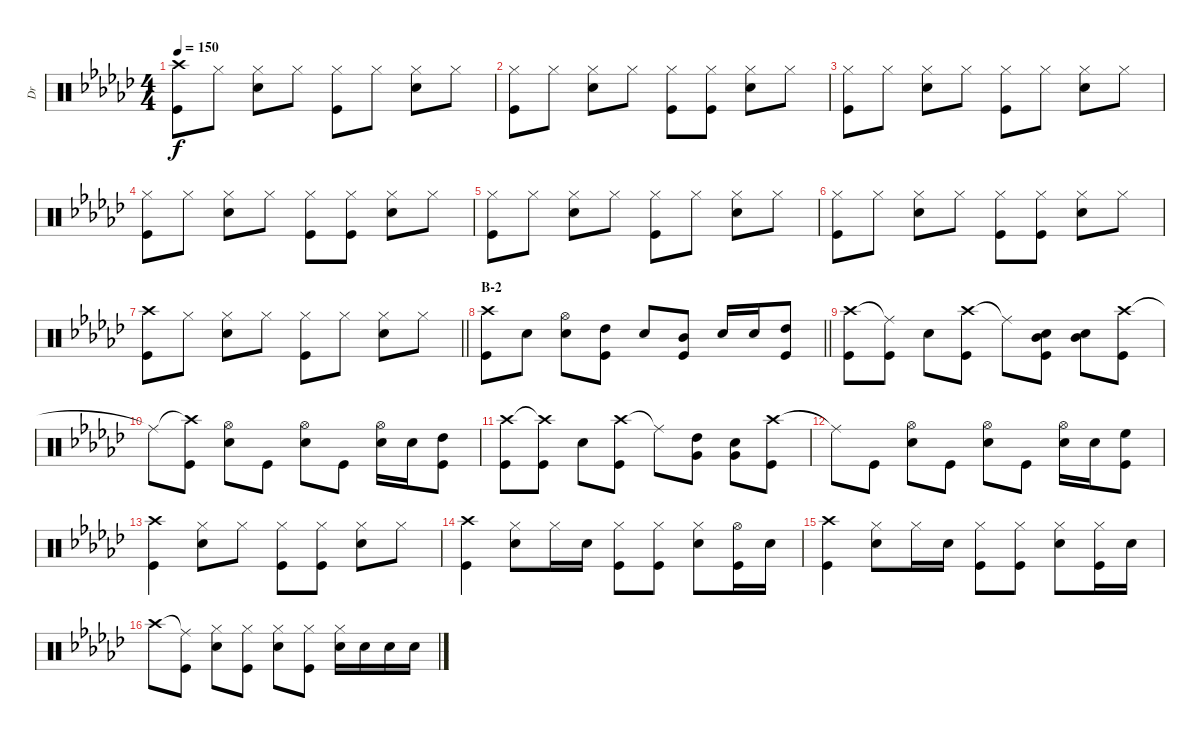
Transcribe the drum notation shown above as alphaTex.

\track ("Dr" "Dr") {instrument percussion}
\staff {score}
\articulation defaults
\ts (4 4)
\tempo 150
\clef neutral
\ks gb
("Crash high (hit)" "Kick (hit)").8{dy f} "Hi-Hat (closed)".8 ("Hi-Hat (closed)" "Electric Snare (hit)").8 "Hi-Hat (closed)".8 ("Hi-Hat (closed)" "Kick (hit)").8 "Hi-Hat (closed)".8 ("Hi-Hat (closed)" "Electric Snare (hit)").8 "Hi-Hat (closed)".8 |
("Hi-Hat (closed)" "Kick (hit)").8 "Hi-Hat (closed)".8 ("Hi-Hat (closed)" "Electric Snare (hit)").8 "Hi-Hat (closed)".8 ("Hi-Hat (closed)" "Kick (hit)").8 ("Hi-Hat (closed)" "Kick (hit)").8 ("Hi-Hat (closed)" "Electric Snare (hit)").8 "Hi-Hat (closed)".8 |
("Hi-Hat (closed)" "Kick (hit)").8 "Hi-Hat (closed)".8 ("Hi-Hat (closed)" "Electric Snare (hit)").8 "Hi-Hat (closed)".8 ("Hi-Hat (closed)" "Kick (hit)").8 "Hi-Hat (closed)".8 ("Hi-Hat (closed)" "Electric Snare (hit)").8 "Hi-Hat (closed)".8 |
("Hi-Hat (closed)" "Kick (hit)").8 "Hi-Hat (closed)".8 ("Hi-Hat (closed)" "Electric Snare (hit)").8 "Hi-Hat (closed)".8 ("Hi-Hat (closed)" "Kick (hit)").8 ("Hi-Hat (closed)" "Kick (hit)").8 ("Hi-Hat (closed)" "Electric Snare (hit)").8 "Hi-Hat (closed)".8 |
("Hi-Hat (closed)" "Kick (hit)").8 "Hi-Hat (closed)".8 ("Hi-Hat (closed)" "Electric Snare (hit)").8 "Hi-Hat (closed)".8 ("Hi-Hat (closed)" "Kick (hit)").8 "Hi-Hat (closed)".8 ("Hi-Hat (closed)" "Electric Snare (hit)").8 "Hi-Hat (closed)".8 |
("Hi-Hat (closed)" "Kick (hit)").8 "Hi-Hat (closed)".8 ("Hi-Hat (closed)" "Electric Snare (hit)").8 "Hi-Hat (closed)".8 ("Hi-Hat (closed)" "Kick (hit)").8 ("Hi-Hat (closed)" "Kick (hit)").8 ("Hi-Hat (closed)" "Electric Snare (hit)").8 "Hi-Hat (closed)".8 |
\barLineRight lightlight
("Crash high (hit)" "Kick (hit)").8 "Hi-Hat (closed)".8 ("Hi-Hat (closed)" "Electric Snare (hit)").8 "Hi-Hat (closed)".8 ("Hi-Hat (closed)" "Kick (hit)").8 "Hi-Hat (closed)".8 ("Hi-Hat (closed)" "Electric Snare (hit)").8 "Hi-Hat (closed)".8 |
\section ("" "B-2")
\barLineRight lightlight
("Crash high (hit)" "Kick (hit)").8 "Electric Snare (hit)".8 ("Hi-Hat (open)" "Electric Snare (hit)").8 ("High Tom (hit)" "Kick (hit)").8 "Electric Snare (hit)".8 ("Mid Tom (hit)" "Kick (hit)").8 "Electric Snare (hit)".16 "Electric Snare (hit)".16 ("High Tom (hit)" "Kick (hit)").8 |
("Crash high (hit)" "Kick (hit)").8 ("Ride (middle)"{t} "Kick (hit)").8 "Electric Snare (hit)".8 ("Crash high (hit)" "Kick (hit)").8 "Ride (middle)"{t}.8 ("Mid Tom (hit)" "Electric Snare (hit)" "Kick (hit)").8 ("Mid Tom (hit)" "Electric Snare (hit)").8 ("Crash high (hit)" "Kick (hit)").8 |
"Ride (middle)"{t}.8 ("Crash high (hit)"{t} "Kick (hit)").8 ("Hi-Hat (open)" "Electric Snare (hit)").8 "Kick (hit)".8 ("Hi-Hat (open)" "Electric Snare (hit)").8 "Kick (hit)".8 ("Hi-Hat (open)" "Electric Snare (hit)").16 "Electric Snare (hit)".16 ("High Tom (hit)" "Kick (hit)").8 |
("Crash high (hit)" "Kick (hit)").8 ("Crash high (hit)"{t} "Kick (hit)").8 "Electric Snare (hit)".8 ("Crash high (hit)" "Kick (hit)").8 "Ride (middle)"{t}.8 ("High Tom (hit)" "Very Low Tom (hit)").8 ("Very Low Tom (hit)" "Electric Snare (hit)").8 ("Crash high (hit)" "Kick (hit)").8 |
"Ride (middle)"{t}.8 "Kick (hit)".8 ("Hi-Hat (open)" "Electric Snare (hit)").8 "Kick (hit)".8 ("Hi-Hat (open)" "Electric Snare (hit)").8 "Kick (hit)".8 ("Hi-Hat (open)" "Electric Snare (hit)").16 "Electric Snare (hit)".16 ("High Floor Tom (hit)" "Kick (hit)").8 |
("Crash high (hit)" "Kick (hit)").4 ("Hi-Hat (closed)" "Electric Snare (hit)").8 "Hi-Hat (closed)".8 ("Hi-Hat (closed)" "Kick (hit)").8 ("Hi-Hat (closed)" "Kick (hit)").8 ("Hi-Hat (closed)" "Electric Snare (hit)").8 "Hi-Hat (closed)".8 |
("Crash high (hit)" "Kick (hit)").4 ("Hi-Hat (closed)" "Electric Snare (hit)").8 "Hi-Hat (closed)".16 "Electric Snare (hit)".16 ("Hi-Hat (closed)" "Kick (hit)").8 ("Hi-Hat (closed)" "Kick (hit)").8 ("Hi-Hat (closed)" "Electric Snare (hit)").8 ("Hi-Hat (open)" "Kick (hit)").16 "Electric Snare (hit)".16 |
("Crash high (hit)" "Kick (hit)").4 ("Hi-Hat (closed)" "Electric Snare (hit)").8 "Hi-Hat (closed)".16 "Electric Snare (hit)".16 ("Hi-Hat (closed)" "Kick (hit)").8 ("Hi-Hat (closed)" "Kick (hit)").8 ("Hi-Hat (closed)" "Electric Snare (hit)").8 ("Hi-Hat (closed)" "Kick (hit)").16 "Electric Snare (hit)".16 |
"Crash high (hit)".8 ("Ride (middle)"{t} "Kick (hit)").8 ("Hi-Hat (closed)" "Electric Snare (hit)").8 ("Hi-Hat (closed)" "Kick (hit)").8 ("Hi-Hat (closed)" "Electric Snare (hit)").8 ("Hi-Hat (closed)" "Kick (hit)").8 ("Hi-Hat (closed)" "Electric Snare (hit)").16 "Electric Snare (hit)".16 "Electric Snare (hit)".16 "Electric Snare (hit)".16
